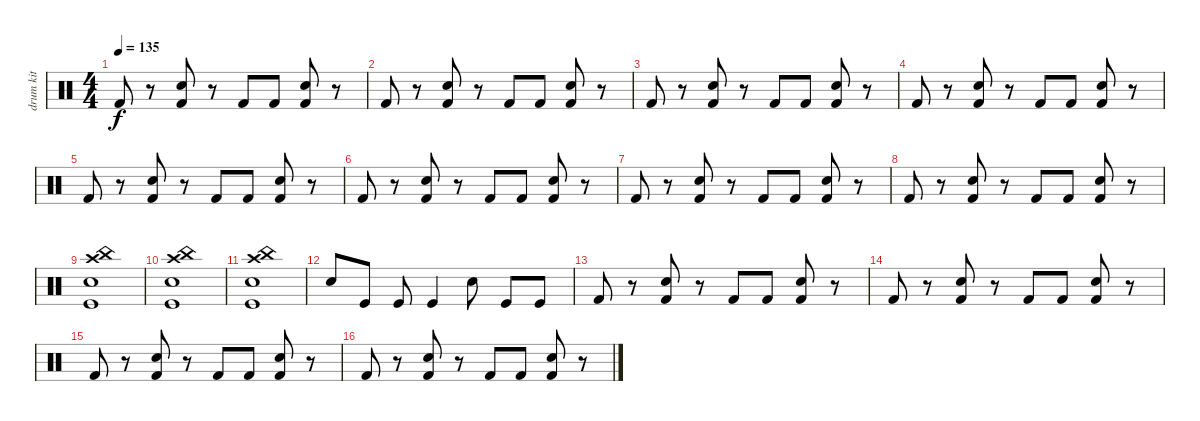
\track ("drum kit" "drum kit") {instrument percussion}
\staff {score}
\articulation defaults
\ts (4 4)
\tempo 135
\clef neutral
\ks c "Kick (hit) 2".8{dy f}
r.8 ("Snare (hit) 2" "Kick (hit) 2").8 r.8 "Kick (hit) 2".8 "Kick (hit) 2".8 ("Snare (hit) 2" "Kick (hit) 2").8 r.8 |
"Kick (hit) 2".8 r.8 ("Snare (hit) 2" "Kick (hit) 2").8 r.8 "Kick (hit) 2".8 "Kick (hit) 2".8 ("Snare (hit) 2" "Kick (hit) 2").8 r.8 |
"Kick (hit) 2".8 r.8 ("Snare (hit) 2" "Kick (hit) 2").8 r.8 "Kick (hit) 2".8 "Kick (hit) 2".8 ("Snare (hit) 2" "Kick (hit) 2").8 r.8 |
"Kick (hit) 2".8 r.8 ("Snare (hit) 2" "Kick (hit) 2").8 r.8 "Kick (hit) 2".8 "Kick (hit) 2".8 ("Snare (hit) 2" "Kick (hit) 2").8 r.8 |
"Kick (hit) 2".8 r.8 ("Snare (hit) 2" "Kick (hit) 2").8 r.8 "Kick (hit) 2".8 "Kick (hit) 2".8 ("Snare (hit) 2" "Kick (hit) 2").8 r.8 |
"Kick (hit) 2".8 r.8 ("Snare (hit) 2" "Kick (hit) 2").8 r.8 "Kick (hit) 2".8 "Kick (hit) 2".8 ("Snare (hit) 2" "Kick (hit) 2").8 r.8 |
"Kick (hit) 2".8 r.8 ("Snare (hit) 2" "Kick (hit) 2").8 r.8 "Kick (hit) 2".8 "Kick (hit) 2".8 ("Snare (hit) 2" "Kick (hit) 2").8 r.8 |
"Kick (hit) 2".8 r.8 ("Snare (hit) 2" "Kick (hit) 2").8 r.8 "Kick (hit) 2".8 "Kick (hit) 2".8 ("Snare (hit) 2" "Kick (hit) 2").8 r.8 |
("Snare (hit) 2" "Crash high (hit)" "China (hit)" "Kick (hit)").1 |
("Snare (hit) 2" "Crash high (hit)" "China (hit)" "Kick (hit)").1 |
("Snare (hit) 2" "Crash high (hit)" "China (hit)" "Kick (hit)").1 |
"Snare (hit) 2".8 "Kick (hit)".8 "Kick (hit)".8 "Kick (hit)".4 "Snare (hit) 2".8 "Kick (hit)".8 "Kick (hit)".8 |
"Kick (hit) 2".8 r.8 ("Snare (hit) 2" "Kick (hit) 2").8 r.8 "Kick (hit) 2".8 "Kick (hit) 2".8 ("Snare (hit) 2" "Kick (hit) 2").8 r.8 |
"Kick (hit) 2".8 r.8 ("Snare (hit) 2" "Kick (hit) 2").8 r.8 "Kick (hit) 2".8 "Kick (hit) 2".8 ("Snare (hit) 2" "Kick (hit) 2").8 r.8 |
"Kick (hit) 2".8 r.8 ("Snare (hit) 2" "Kick (hit) 2").8 r.8 "Kick (hit) 2".8 "Kick (hit) 2".8 ("Snare (hit) 2" "Kick (hit) 2").8 r.8 |
"Kick (hit) 2".8 r.8 ("Snare (hit) 2" "Kick (hit) 2").8 r.8 "Kick (hit) 2".8 "Kick (hit) 2".8 ("Snare (hit) 2" "Kick (hit) 2").8 r.8
